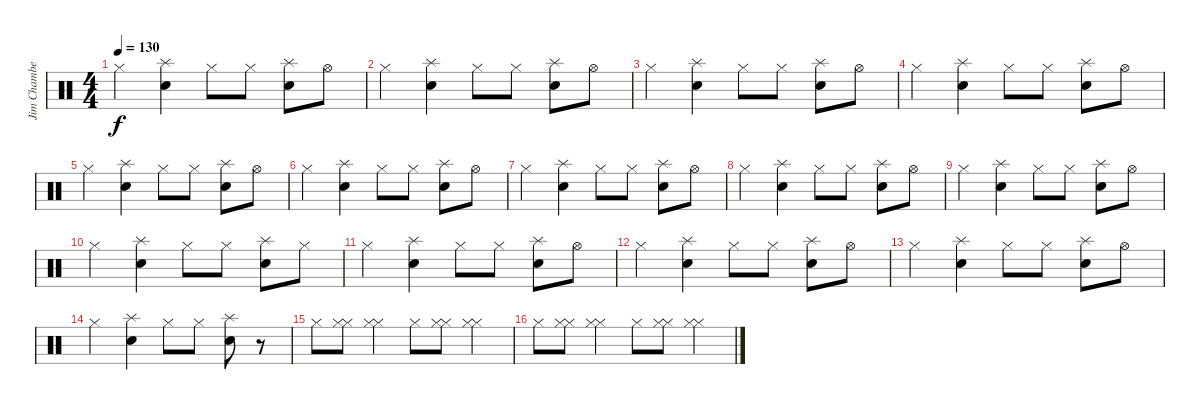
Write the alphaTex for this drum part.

\track ("Jim Chamberlin (Drums)" "Jim Chambe") {instrument percussion}
\staff {score}
\articulation defaults
\ts (4 4)
\tempo 130
\clef neutral
\ks c "Hi-Hat (closed)".4{dy f}
("Snare (hit) 2" "Splash (hit)").4 "Hi-Hat (closed)".8 "Hi-Hat (closed)".8 ("Snare (hit) 2" "Splash (hit)").8 "Hi-Hat (open)".8 |
"Hi-Hat (closed)".4 ("Snare (hit) 2" "Splash (hit)").4 "Hi-Hat (closed)".8 "Hi-Hat (closed)".8 ("Snare (hit) 2" "Splash (hit)").8 "Hi-Hat (open)".8 |
"Hi-Hat (closed)".4 ("Snare (hit) 2" "Splash (hit)").4 "Hi-Hat (closed)".8 "Hi-Hat (closed)".8 ("Snare (hit) 2" "Splash (hit)").8 "Hi-Hat (open)".8 |
"Hi-Hat (closed)".4 ("Snare (hit) 2" "Splash (hit)").4 "Hi-Hat (closed)".8 "Hi-Hat (closed)".8 ("Snare (hit) 2" "Splash (hit)").8 "Hi-Hat (open)".8 |
"Hi-Hat (closed)".4 ("Snare (hit) 2" "Splash (hit)").4 "Hi-Hat (closed)".8 "Hi-Hat (closed)".8 ("Snare (hit) 2" "Splash (hit)").8 "Hi-Hat (open)".8 |
"Hi-Hat (closed)".4 ("Snare (hit) 2" "Splash (hit)").4 "Hi-Hat (closed)".8 "Hi-Hat (closed)".8 ("Snare (hit) 2" "Splash (hit)").8 "Hi-Hat (open)".8 |
"Hi-Hat (closed)".4 ("Snare (hit) 2" "Splash (hit)").4 "Hi-Hat (closed)".8 "Hi-Hat (closed)".8 ("Snare (hit) 2" "Splash (hit)").8 "Hi-Hat (open)".8 |
"Hi-Hat (closed)".4 ("Snare (hit) 2" "Splash (hit)").4 "Hi-Hat (closed)".8 "Hi-Hat (closed)".8 ("Snare (hit) 2" "Splash (hit)").8 "Hi-Hat (open)".8 |
"Hi-Hat (closed)".4 ("Snare (hit) 2" "Splash (hit)").4 "Hi-Hat (closed)".8 "Hi-Hat (closed)".8 ("Snare (hit) 2" "Splash (hit)").8 "Hi-Hat (open)".8 |
"Hi-Hat (closed)".4 ("Snare (hit) 2" "Splash (hit)").4 "Hi-Hat (closed)".8 "Hi-Hat (closed)".8 ("Snare (hit) 2" "Splash (hit)").8 "Hi-Hat (closed)".8 |
"Hi-Hat (closed)".4 ("Snare (hit) 2" "Splash (hit)").4 "Hi-Hat (closed)".8 "Hi-Hat (closed)".8 ("Snare (hit) 2" "Splash (hit)").8 "Hi-Hat (open)".8 |
"Hi-Hat (closed)".4 ("Snare (hit) 2" "Splash (hit)").4 "Hi-Hat (closed)".8 "Hi-Hat (closed)".8 ("Snare (hit) 2" "Splash (hit)").8 "Hi-Hat (open)".8 |
"Hi-Hat (closed)".4 ("Snare (hit) 2" "Splash (hit)").4 "Hi-Hat (closed)".8 "Hi-Hat (closed)".8 ("Snare (hit) 2" "Splash (hit)").8 "Hi-Hat (open)".8 |
"Hi-Hat (closed)".4 ("Snare (hit) 2" "Splash (hit)").4 "Hi-Hat (closed)".8 "Hi-Hat (closed)".8 ("Snare (hit) 2" "Splash (hit)").8 r.8 |
"Hi-Hat (closed)".8 ("Hi-Hat (closed)" "Hi-Hat (closed)").8 ("Hi-Hat (closed)" "Hi-Hat (closed)").4 "Hi-Hat (closed)".8 ("Hi-Hat (closed)" "Hi-Hat (closed)").8 ("Hi-Hat (closed)" "Hi-Hat (closed)").4 |
"Hi-Hat (closed)".8 ("Hi-Hat (closed)" "Hi-Hat (closed)").8 ("Hi-Hat (closed)" "Hi-Hat (closed)").4 "Hi-Hat (closed)".8 ("Hi-Hat (closed)" "Hi-Hat (closed)").8 ("Hi-Hat (closed)" "Hi-Hat (closed)").4
